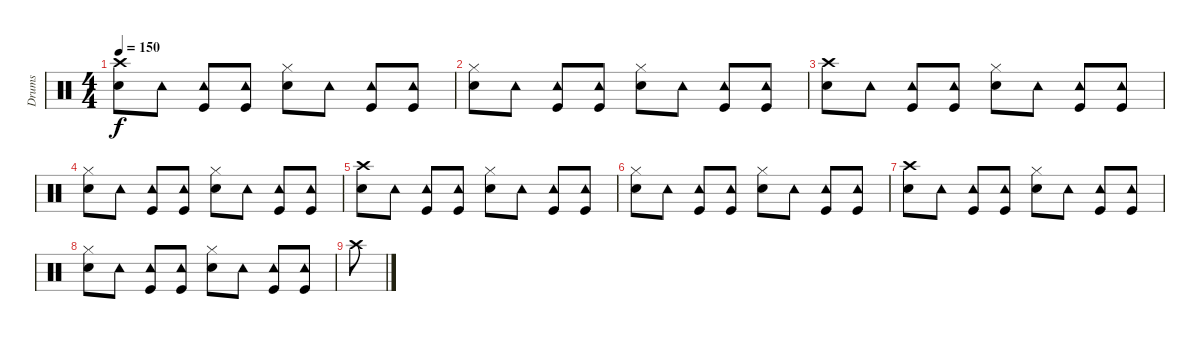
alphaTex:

\track ("Drums" "Drums") {instrument percussion}
\staff {score}
\articulation defaults
\ts (4 4)
\tempo 150
\clef neutral
\ks c
("Crash high (hit)" "Snare (hit) 2").8{dy f} "Tambourine (hit)".8 ("Tambourine (hit)" "Kick (hit)").8 ("Tambourine (hit)" "Kick (hit)").8 ("Hi-Hat (closed)" "Snare (hit) 2").8 "Tambourine (hit)".8 ("Tambourine (hit)" "Kick (hit)").8 ("Tambourine (hit)" "Kick (hit)").8 |
("Hi-Hat (closed)" "Snare (hit) 2").8 "Tambourine (hit)".8 ("Tambourine (hit)" "Kick (hit)").8 ("Tambourine (hit)" "Kick (hit)").8 ("Hi-Hat (closed)" "Snare (hit) 2").8 "Tambourine (hit)".8 ("Tambourine (hit)" "Kick (hit)").8 ("Tambourine (hit)" "Kick (hit)").8 |
("Crash high (hit)" "Snare (hit) 2").8 "Tambourine (hit)".8 ("Tambourine (hit)" "Kick (hit)").8 ("Tambourine (hit)" "Kick (hit)").8 ("Hi-Hat (closed)" "Snare (hit) 2").8 "Tambourine (hit)".8 ("Tambourine (hit)" "Kick (hit)").8 ("Tambourine (hit)" "Kick (hit)").8 |
("Hi-Hat (closed)" "Snare (hit) 2").8 "Tambourine (hit)".8 ("Tambourine (hit)" "Kick (hit)").8 ("Tambourine (hit)" "Kick (hit)").8 ("Hi-Hat (closed)" "Snare (hit) 2").8 "Tambourine (hit)".8 ("Tambourine (hit)" "Kick (hit)").8 ("Tambourine (hit)" "Kick (hit)").8 |
("Crash high (hit)" "Snare (hit) 2").8 "Tambourine (hit)".8 ("Tambourine (hit)" "Kick (hit)").8 ("Tambourine (hit)" "Kick (hit)").8 ("Hi-Hat (closed)" "Snare (hit) 2").8 "Tambourine (hit)".8 ("Tambourine (hit)" "Kick (hit)").8 ("Tambourine (hit)" "Kick (hit)").8 |
("Hi-Hat (closed)" "Snare (hit) 2").8 "Tambourine (hit)".8 ("Tambourine (hit)" "Kick (hit)").8 ("Tambourine (hit)" "Kick (hit)").8 ("Hi-Hat (closed)" "Snare (hit) 2").8 "Tambourine (hit)".8 ("Tambourine (hit)" "Kick (hit)").8 ("Tambourine (hit)" "Kick (hit)").8 |
("Crash high (hit)" "Snare (hit) 2").8 "Tambourine (hit)".8 ("Tambourine (hit)" "Kick (hit)").8 ("Tambourine (hit)" "Kick (hit)").8 ("Hi-Hat (closed)" "Snare (hit) 2").8 "Tambourine (hit)".8 ("Tambourine (hit)" "Kick (hit)").8 ("Tambourine (hit)" "Kick (hit)").8 |
("Hi-Hat (closed)" "Snare (hit) 2").8 "Tambourine (hit)".8 ("Tambourine (hit)" "Kick (hit)").8 ("Tambourine (hit)" "Kick (hit)").8 ("Hi-Hat (closed)" "Snare (hit) 2").8 "Tambourine (hit)".8 ("Tambourine (hit)" "Kick (hit)").8 ("Tambourine (hit)" "Kick (hit)").8 |
"Crash high (hit)".8
